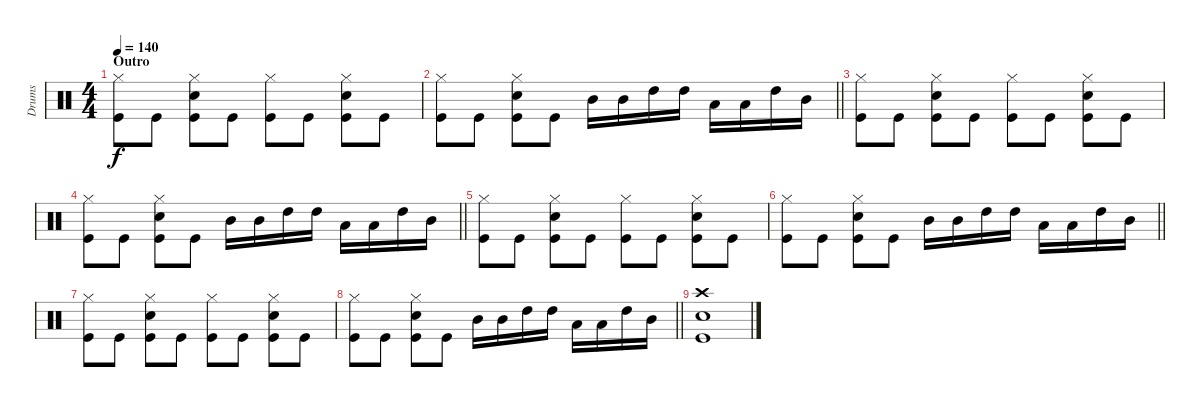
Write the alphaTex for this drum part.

\track ("Drums" "Drums") {instrument percussion}
\staff {score}
\articulation defaults
\ts (4 4)
\section ("" "Outro")
\tempo 140
\clef neutral
\ks c
("Hi-Hat (closed)" "Kick (hit)").8{dy f} "Kick (hit)".8 ("Hi-Hat (closed)" "Kick (hit)" "Snare (hit) 2").8 "Kick (hit)".8 ("Hi-Hat (closed)" "Kick (hit)").8 "Kick (hit)".8 ("Hi-Hat (closed)" "Kick (hit)" "Snare (hit) 2").8 "Kick (hit)".8 |
\barLineRight lightlight
("Hi-Hat (closed)" "Kick (hit)").8 "Kick (hit)".8 ("Hi-Hat (closed)" "Kick (hit)" "Snare (hit) 2").8 "Kick (hit)".8 "Mid Tom (hit)".16 "Mid Tom (hit)".16 "High Tom (hit)".16 "High Tom (hit)".16 "Low Tom (hit)".16 "Low Tom (hit)".16 "High Tom (hit)".16 "Mid Tom (hit)".16 |
("Hi-Hat (closed)" "Kick (hit)").8 "Kick (hit)".8 ("Hi-Hat (closed)" "Kick (hit)" "Snare (hit) 2").8 "Kick (hit)".8 ("Hi-Hat (closed)" "Kick (hit)").8 "Kick (hit)".8 ("Hi-Hat (closed)" "Kick (hit)" "Snare (hit) 2").8 "Kick (hit)".8 |
\barLineRight lightlight
("Hi-Hat (closed)" "Kick (hit)").8 "Kick (hit)".8 ("Hi-Hat (closed)" "Kick (hit)" "Snare (hit) 2").8 "Kick (hit)".8 "Mid Tom (hit)".16 "Mid Tom (hit)".16 "High Tom (hit)".16 "High Tom (hit)".16 "Low Tom (hit)".16 "Low Tom (hit)".16 "High Tom (hit)".16 "Mid Tom (hit)".16 |
("Hi-Hat (closed)" "Kick (hit)").8 "Kick (hit)".8 ("Hi-Hat (closed)" "Kick (hit)" "Snare (hit) 2").8 "Kick (hit)".8 ("Hi-Hat (closed)" "Kick (hit)").8 "Kick (hit)".8 ("Hi-Hat (closed)" "Kick (hit)" "Snare (hit) 2").8 "Kick (hit)".8 |
\barLineRight lightlight
("Hi-Hat (closed)" "Kick (hit)").8 "Kick (hit)".8 ("Hi-Hat (closed)" "Kick (hit)" "Snare (hit) 2").8 "Kick (hit)".8 "Mid Tom (hit)".16 "Mid Tom (hit)".16 "High Tom (hit)".16 "High Tom (hit)".16 "Low Tom (hit)".16 "Low Tom (hit)".16 "High Tom (hit)".16 "Mid Tom (hit)".16 |
("Hi-Hat (closed)" "Kick (hit)").8 "Kick (hit)".8 ("Hi-Hat (closed)" "Kick (hit)" "Snare (hit) 2").8 "Kick (hit)".8 ("Hi-Hat (closed)" "Kick (hit)").8 "Kick (hit)".8 ("Hi-Hat (closed)" "Kick (hit)" "Snare (hit) 2").8 "Kick (hit)".8 |
\barLineRight lightlight
("Hi-Hat (closed)" "Kick (hit)").8 "Kick (hit)".8 ("Hi-Hat (closed)" "Kick (hit)" "Snare (hit) 2").8 "Kick (hit)".8 "Mid Tom (hit)".16 "Mid Tom (hit)".16 "High Tom (hit)".16 "High Tom (hit)".16 "Low Tom (hit)".16 "Low Tom (hit)".16 "High Tom (hit)".16 "Mid Tom (hit)".16 |
("Snare (hit) 2" "Crash high (hit)" "Kick (hit)").1
